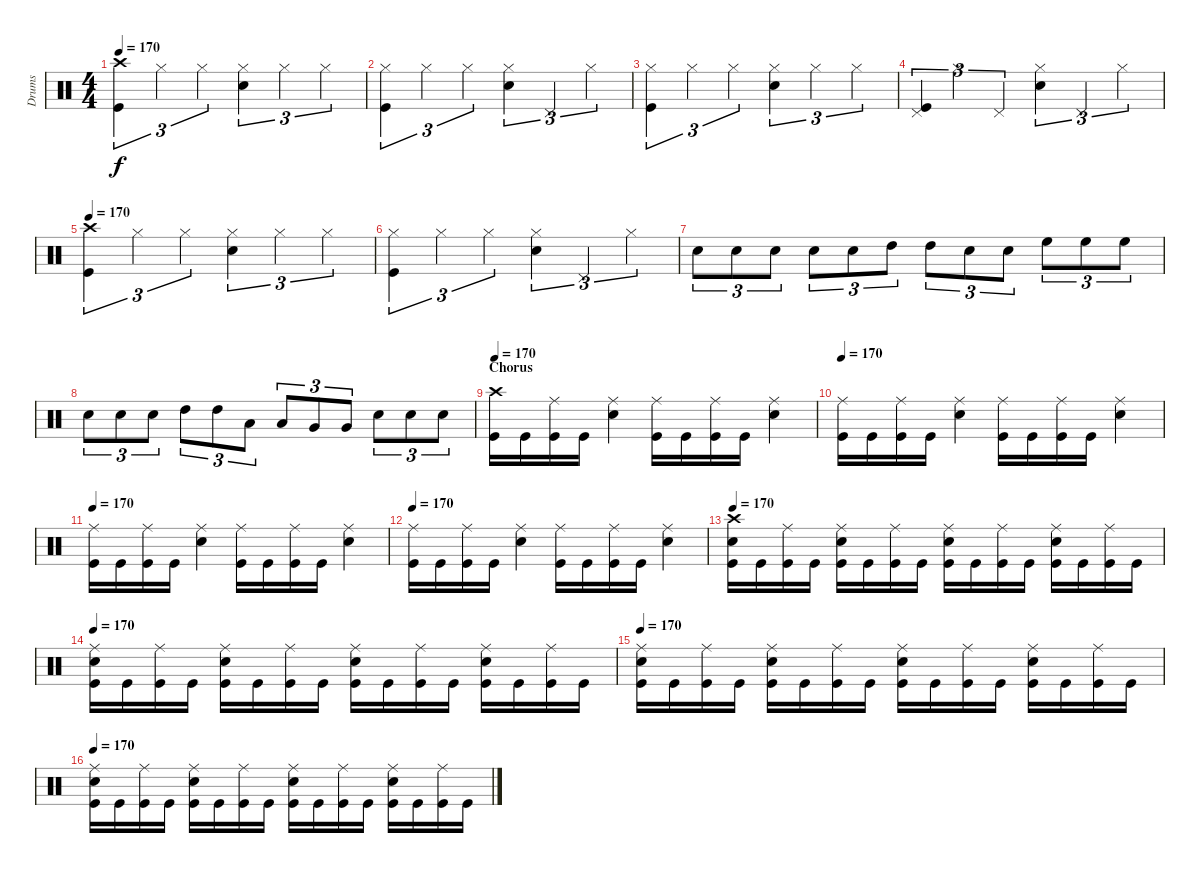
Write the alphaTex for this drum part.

\track ("Drums" "Drums") {instrument percussion}
\staff {score}
\articulation defaults
\ts (4 4)
\tempo 170
\clef neutral
\ks c
("Crash high (hit)" "Kick (hit)").4{tu (3 2) dy f} "Hi-Hat (closed)".4{tu (3 2)} "Hi-Hat (closed)".4{tu (3 2)} ("Hi-Hat (closed)" "Snare (hit) 2").4{tu (3 2)} "Hi-Hat (closed)".4{tu (3 2)} "Hi-Hat (closed)".4{tu (3 2)} |
("Hi-Hat (closed)" "Kick (hit)").4{tu (3 2)} "Hi-Hat (closed)".4{tu (3 2)} "Hi-Hat (closed)".4{tu (3 2)} ("Hi-Hat (closed)" "Snare (hit) 2").4{tu (3 2)} "Pedal Hi-Hat (hit)".4{tu (3 2)} "Hi-Hat (closed)".4{tu (3 2)} |
("Hi-Hat (closed)" "Kick (hit)").4{tu (3 2)} "Hi-Hat (closed)".4{tu (3 2)} "Hi-Hat (closed)".4{tu (3 2)} ("Hi-Hat (closed)" "Snare (hit) 2").4{tu (3 2)} "Hi-Hat (closed)".4{tu (3 2)} "Hi-Hat (closed)".4{tu (3 2)} |
("Pedal Hi-Hat (hit)" "Kick (hit)").4{tu (3 2)} "Hi-Hat (closed)".4{tu (3 2)} "Pedal Hi-Hat (hit)".4{tu (3 2)} ("Hi-Hat (closed)" "Snare (hit) 2").4{tu (3 2)} "Pedal Hi-Hat (hit)".4{tu (3 2)} "Hi-Hat (closed)".4{tu (3 2)} |
\tempo 170
("Crash high (hit)" "Kick (hit)").4{tu (3 2)} "Hi-Hat (closed)".4{tu (3 2)} "Hi-Hat (closed)".4{tu (3 2)} ("Hi-Hat (closed)" "Snare (hit) 2").4{tu (3 2)} "Hi-Hat (closed)".4{tu (3 2)} "Hi-Hat (closed)".4{tu (3 2)} |
("Hi-Hat (closed)" "Kick (hit)").4{tu (3 2)} "Hi-Hat (closed)".4{tu (3 2)} "Hi-Hat (closed)".4{tu (3 2)} ("Hi-Hat (closed)" "Snare (hit) 2").4{tu (3 2)} "Pedal Hi-Hat (hit)".4{tu (3 2)} "Hi-Hat (closed)".4{tu (3 2)} |
"Snare (hit) 2".8{tu (3 2)} "Snare (hit) 2".8{tu (3 2)} "Snare (hit) 2".8{tu (3 2)} "Snare (hit) 2".8{tu (3 2)} "Snare (hit) 2".8{tu (3 2)} "High Tom (hit)".8{tu (3 2)} "High Tom (hit)".8{tu (3 2)} "Snare (hit) 2".8{tu (3 2)} "Snare (hit) 2".8{tu (3 2)} "High Floor Tom (hit)".8{tu (3 2)} "High Floor Tom (hit)".8{tu (3 2)} "High Floor Tom (hit)".8{tu (3 2)} |
"Snare (hit) 2".8{tu (3 2)} "Snare (hit) 2".8{tu (3 2)} "Snare (hit) 2".8{tu (3 2)} "High Tom (hit)".8{tu (3 2)} "High Tom (hit)".8{tu (3 2)} "Low Tom (hit)".8{tu (3 2)} "Low Tom (hit)".8{tu (3 2)} "Very Low Tom (hit)".8{tu (3 2)} "Very Low Tom (hit)".8{tu (3 2)} "Snare (hit) 2".8{tu (3 2)} "Snare (hit) 2".8{tu (3 2)} "Snare (hit) 2".8{tu (3 2)} |
\section ("" "Chorus")
\tempo 170
("Crash high (hit)" "Kick (hit)").16 "Kick (hit)".16 ("Ride (middle)" "Kick (hit)").16 "Kick (hit)".16 ("Ride (middle)" "Snare (hit) 2").4 ("Ride (middle)" "Kick (hit)").16 "Kick (hit)".16 ("Ride (middle)" "Kick (hit)").16 "Kick (hit)".16 ("Ride (middle)" "Snare (hit) 2").4 |
\tempo 170
("Ride (middle)" "Kick (hit)").16 "Kick (hit)".16 ("Ride (middle)" "Kick (hit)").16 "Kick (hit)".16 ("Ride (middle)" "Snare (hit) 2").4 ("Ride (middle)" "Kick (hit)").16 "Kick (hit)".16 ("Ride (middle)" "Kick (hit)").16 "Kick (hit)".16 ("Ride (middle)" "Snare (hit) 2").4 |
\tempo 170
("Ride (middle)" "Kick (hit)").16 "Kick (hit)".16 ("Ride (middle)" "Kick (hit)").16 "Kick (hit)".16 ("Ride (middle)" "Snare (hit) 2").4 ("Ride (middle)" "Kick (hit)").16 "Kick (hit)".16 ("Ride (middle)" "Kick (hit)").16 "Kick (hit)".16 ("Ride (middle)" "Snare (hit) 2").4 |
\tempo 170
("Ride (middle)" "Kick (hit)").16 "Kick (hit)".16 ("Ride (middle)" "Kick (hit)").16 "Kick (hit)".16 ("Ride (middle)" "Snare (hit) 2").4 ("Ride (middle)" "Kick (hit)").16 "Kick (hit)".16 ("Ride (middle)" "Kick (hit)").16 "Kick (hit)".16 ("Ride (middle)" "Snare (hit) 2").4 |
\tempo 170
("Crash high (hit)" "Snare (hit) 2" "Kick (hit)").16 "Kick (hit)".16 ("Ride (middle)" "Kick (hit)").16 "Kick (hit)".16 ("Ride (middle)" "Snare (hit) 2" "Kick (hit)").16 "Kick (hit)".16 ("Ride (middle)" "Kick (hit)").16 "Kick (hit)".16 ("Ride (middle)" "Snare (hit) 2" "Kick (hit)").16 "Kick (hit)".16 ("Ride (middle)" "Kick (hit)").16 "Kick (hit)".16 ("Ride (middle)" "Snare (hit) 2" "Kick (hit)").16 "Kick (hit)".16 ("Ride (middle)" "Kick (hit)").16 "Kick (hit)".16 |
\tempo 170
("Ride (middle)" "Snare (hit) 2" "Kick (hit)").16 "Kick (hit)".16 ("Ride (middle)" "Kick (hit)").16 "Kick (hit)".16 ("Ride (middle)" "Snare (hit) 2" "Kick (hit)").16 "Kick (hit)".16 ("Ride (middle)" "Kick (hit)").16 "Kick (hit)".16 ("Ride (middle)" "Snare (hit) 2" "Kick (hit)").16 "Kick (hit)".16 ("Ride (middle)" "Kick (hit)").16 "Kick (hit)".16 ("Ride (middle)" "Snare (hit) 2" "Kick (hit)").16 "Kick (hit)".16 ("Ride (middle)" "Kick (hit)").16 "Kick (hit)".16 |
\tempo 170
("Ride (middle)" "Snare (hit) 2" "Kick (hit)").16 "Kick (hit)".16 ("Ride (middle)" "Kick (hit)").16 "Kick (hit)".16 ("Ride (middle)" "Snare (hit) 2" "Kick (hit)").16 "Kick (hit)".16 ("Ride (middle)" "Kick (hit)").16 "Kick (hit)".16 ("Ride (middle)" "Snare (hit) 2" "Kick (hit)").16 "Kick (hit)".16 ("Ride (middle)" "Kick (hit)").16 "Kick (hit)".16 ("Ride (middle)" "Snare (hit) 2" "Kick (hit)").16 "Kick (hit)".16 ("Ride (middle)" "Kick (hit)").16 "Kick (hit)".16 |
\tempo 170
("Ride (middle)" "Snare (hit) 2" "Kick (hit)").16 "Kick (hit)".16 ("Ride (middle)" "Kick (hit)").16 "Kick (hit)".16 ("Ride (middle)" "Snare (hit) 2" "Kick (hit)").16 "Kick (hit)".16 ("Ride (middle)" "Kick (hit)").16 "Kick (hit)".16 ("Ride (middle)" "Snare (hit) 2" "Kick (hit)").16 "Kick (hit)".16 ("Ride (middle)" "Kick (hit)").16 "Kick (hit)".16 ("Ride (middle)" "Snare (hit) 2" "Kick (hit)").16 "Kick (hit)".16 ("Ride (middle)" "Kick (hit)").16 "Kick (hit)".16
